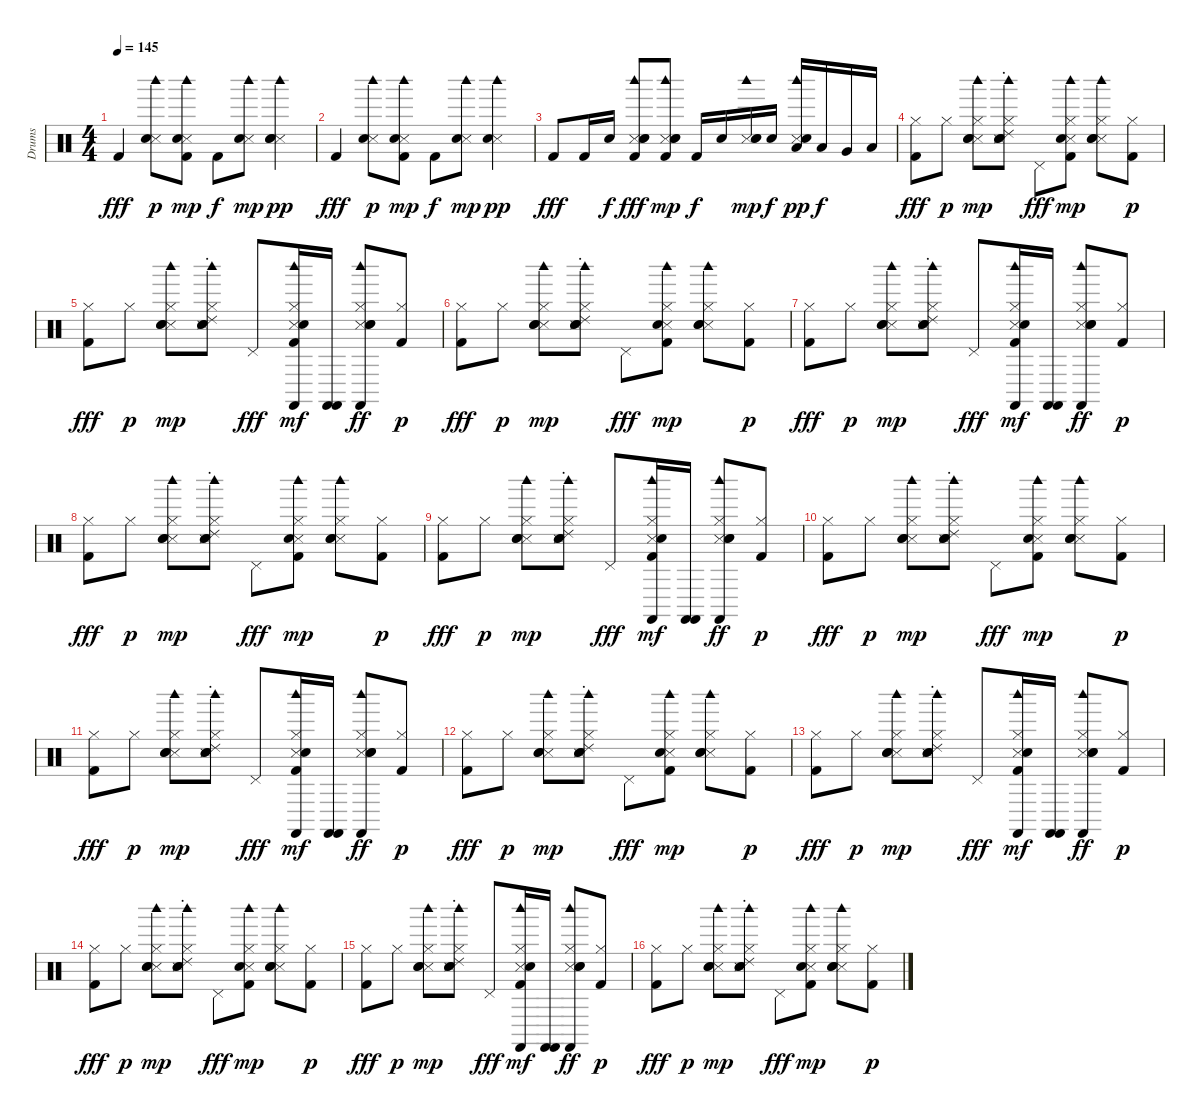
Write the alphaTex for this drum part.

\track ("Drums" "Drums") {instrument percussion}
\staff {score}
\articulation defaults
\ts (4 4)
\tempo 145
\clef neutral
\ks c "Kick (hit) 2".4{dy fff}
("Snare (side stick) 3" "Hand Clap (hit)" "Woodblock high (hit)").8{dy p} ("Kick (hit) 2" "Snare (side stick) 3" "Hand Clap (hit)" "Woodblock high (hit)").8{dy mp} "Kick (hit) 2".8{dy f} ("Snare (side stick) 3" "Hand Clap (hit)" "Woodblock high (hit)").8{dy mp} ("Snare (side stick) 3" "Hand Clap (hit)" "Electric Snare (hit)" "Woodblock high (hit)").4{dy pp} |
"Kick (hit) 2".4{dy fff} ("Snare (side stick) 3" "Hand Clap (hit)" "Woodblock high (hit)").8{dy p} ("Kick (hit) 2" "Snare (side stick) 3" "Hand Clap (hit)" "Woodblock high (hit)").8{dy mp} "Kick (hit) 2".8{dy f} ("Snare (side stick) 3" "Hand Clap (hit)" "Woodblock high (hit)").8{dy mp} ("Snare (side stick) 3" "Hand Clap (hit)" "Woodblock high (hit)").4{dy pp} |
"Kick (hit) 2".8{dy fff} "Kick (hit) 2".16 "Electric Snare (hit)".16{dy f} ("Kick (hit) 2" "Snare (side stick) 3" "Hand Clap (hit)" "Electric Snare (hit)" "Woodblock high (hit)").8{dy fff} ("Kick (hit) 2" "Snare (side stick) 3" "Hand Clap (hit)" "Electric Snare (hit)" "Woodblock high (hit)").8{dy mp} "Kick (hit) 2".16{dy f} "Electric Snare (hit)".16 ("Snare (side stick) 3" "Hand Clap (hit)" "Electric Snare (hit)" "Woodblock high (hit)").16{dy mp} "Electric Snare (hit)".16{dy f} ("Snare (side stick) 3" "Hand Clap (hit)" "Low Tom (hit)" "Woodblock high (hit)").16{dy pp} "Low Tom (hit)".16{dy f} "Very Low Tom (hit)".16 "Low Floor Tom (hit)".16 |
("Kick (hit) 2" "Hi-Hat (closed)").8{dy fff} "Hi-Hat (closed)".8{dy p} ("Snare (side stick) 3" "Hand Clap (hit)" "Electric Snare (hit)" "Hi-Hat (closed)" "Woodblock high (hit)").8{dy mp} ("Ride (choke) 2" "Snare (side stick) 3" "Hand Clap (hit)" "Electric Snare (hit)" "Hi-Hat (closed)" "Woodblock high (hit)").8 "Pedal Hi-Hat (hit)".8{dy fff} ("Kick (hit) 2" "Snare (side stick) 3" "Hand Clap (hit)" "Hi-Hat (closed)" "Woodblock high (hit)").8{dy mp} ("Snare (side stick) 3" "Hand Clap (hit)" "Electric Snare (hit)" "Hi-Hat (closed)" "Woodblock high (hit)").8 ("Kick (hit) 2" "Hi-Hat (closed)").8{dy p} |
("Kick (hit) 2" "Hi-Hat (closed)").8{dy fff} "Hi-Hat (closed)".8{dy p} ("Snare (side stick) 3" "Hand Clap (hit)" "Electric Snare (hit)" "Hi-Hat (closed)" "Woodblock high (hit)").8{dy mp} ("Ride (choke) 2" "Snare (side stick) 3" "Hand Clap (hit)" "Electric Snare (hit)" "Hi-Hat (closed)" "Woodblock high (hit)").8 "Pedal Hi-Hat (hit)".8{dy fff} ("Kick (hit) 2" "Snare (side stick) 3" "Hand Clap (hit)" "Hi-Hat (closed)" "Woodblock high (hit)" "Castanets (hit)").16{dy mf} ("Castanets (hit)" "Castanets (hit)").16 ("Snare (side stick) 3" "Hand Clap (hit)" "Electric Snare (hit)" "Hi-Hat (closed)" "Woodblock high (hit)" "Castanets (hit)").8{dy ff} ("Kick (hit) 2" "Hi-Hat (closed)").8{dy p} |
("Kick (hit) 2" "Hi-Hat (closed)").8{dy fff} "Hi-Hat (closed)".8{dy p} ("Snare (side stick) 3" "Hand Clap (hit)" "Electric Snare (hit)" "Hi-Hat (closed)" "Woodblock high (hit)").8{dy mp} ("Ride (choke) 2" "Snare (side stick) 3" "Hand Clap (hit)" "Electric Snare (hit)" "Hi-Hat (closed)" "Woodblock high (hit)").8 "Pedal Hi-Hat (hit)".8{dy fff} ("Kick (hit) 2" "Snare (side stick) 3" "Hand Clap (hit)" "Hi-Hat (closed)" "Woodblock high (hit)").8{dy mp} ("Snare (side stick) 3" "Hand Clap (hit)" "Electric Snare (hit)" "Hi-Hat (closed)" "Woodblock high (hit)").8 ("Kick (hit) 2" "Hi-Hat (closed)").8{dy p} |
("Kick (hit) 2" "Hi-Hat (closed)").8{dy fff} "Hi-Hat (closed)".8{dy p} ("Snare (side stick) 3" "Hand Clap (hit)" "Electric Snare (hit)" "Hi-Hat (closed)" "Woodblock high (hit)").8{dy mp} ("Ride (choke) 2" "Snare (side stick) 3" "Hand Clap (hit)" "Electric Snare (hit)" "Hi-Hat (closed)" "Woodblock high (hit)").8 "Pedal Hi-Hat (hit)".8{dy fff} ("Kick (hit) 2" "Snare (side stick) 3" "Hand Clap (hit)" "Hi-Hat (closed)" "Woodblock high (hit)" "Castanets (hit)").16{dy mf} ("Castanets (hit)" "Castanets (hit)").16 ("Snare (side stick) 3" "Hand Clap (hit)" "Electric Snare (hit)" "Hi-Hat (closed)" "Woodblock high (hit)" "Castanets (hit)").8{dy ff} ("Kick (hit) 2" "Hi-Hat (closed)").8{dy p} |
("Kick (hit) 2" "Hi-Hat (closed)").8{dy fff} "Hi-Hat (closed)".8{dy p} ("Snare (side stick) 3" "Hand Clap (hit)" "Electric Snare (hit)" "Hi-Hat (closed)" "Woodblock high (hit)").8{dy mp} ("Ride (choke) 2" "Snare (side stick) 3" "Hand Clap (hit)" "Electric Snare (hit)" "Hi-Hat (closed)" "Woodblock high (hit)").8 "Pedal Hi-Hat (hit)".8{dy fff} ("Kick (hit) 2" "Snare (side stick) 3" "Hand Clap (hit)" "Hi-Hat (closed)" "Woodblock high (hit)").8{dy mp} ("Snare (side stick) 3" "Hand Clap (hit)" "Electric Snare (hit)" "Hi-Hat (closed)" "Woodblock high (hit)").8 ("Kick (hit) 2" "Hi-Hat (closed)").8{dy p} |
("Kick (hit) 2" "Hi-Hat (closed)").8{dy fff} "Hi-Hat (closed)".8{dy p} ("Snare (side stick) 3" "Hand Clap (hit)" "Electric Snare (hit)" "Hi-Hat (closed)" "Woodblock high (hit)").8{dy mp} ("Ride (choke) 2" "Snare (side stick) 3" "Hand Clap (hit)" "Electric Snare (hit)" "Hi-Hat (closed)" "Woodblock high (hit)").8 "Pedal Hi-Hat (hit)".8{dy fff} ("Kick (hit) 2" "Snare (side stick) 3" "Hand Clap (hit)" "Hi-Hat (closed)" "Woodblock high (hit)" "Castanets (hit)").16{dy mf} ("Castanets (hit)" "Castanets (hit)").16 ("Snare (side stick) 3" "Hand Clap (hit)" "Electric Snare (hit)" "Hi-Hat (closed)" "Woodblock high (hit)" "Castanets (hit)").8{dy ff} ("Kick (hit) 2" "Hi-Hat (closed)").8{dy p} |
("Kick (hit) 2" "Hi-Hat (closed)").8{dy fff} "Hi-Hat (closed)".8{dy p} ("Snare (side stick) 3" "Hand Clap (hit)" "Electric Snare (hit)" "Hi-Hat (closed)" "Woodblock high (hit)").8{dy mp} ("Ride (choke) 2" "Snare (side stick) 3" "Hand Clap (hit)" "Electric Snare (hit)" "Hi-Hat (closed)" "Woodblock high (hit)").8 "Pedal Hi-Hat (hit)".8{dy fff} ("Kick (hit) 2" "Snare (side stick) 3" "Hand Clap (hit)" "Hi-Hat (closed)" "Woodblock high (hit)").8{dy mp} ("Snare (side stick) 3" "Hand Clap (hit)" "Electric Snare (hit)" "Hi-Hat (closed)" "Woodblock high (hit)").8 ("Kick (hit) 2" "Hi-Hat (closed)").8{dy p} |
("Kick (hit) 2" "Hi-Hat (closed)").8{dy fff} "Hi-Hat (closed)".8{dy p} ("Snare (side stick) 3" "Hand Clap (hit)" "Electric Snare (hit)" "Hi-Hat (closed)" "Woodblock high (hit)").8{dy mp} ("Ride (choke) 2" "Snare (side stick) 3" "Hand Clap (hit)" "Electric Snare (hit)" "Hi-Hat (closed)" "Woodblock high (hit)").8 "Pedal Hi-Hat (hit)".8{dy fff} ("Kick (hit) 2" "Snare (side stick) 3" "Hand Clap (hit)" "Hi-Hat (closed)" "Woodblock high (hit)" "Castanets (hit)").16{dy mf} ("Castanets (hit)" "Castanets (hit)").16 ("Snare (side stick) 3" "Hand Clap (hit)" "Electric Snare (hit)" "Hi-Hat (closed)" "Woodblock high (hit)" "Castanets (hit)").8{dy ff} ("Kick (hit) 2" "Hi-Hat (closed)").8{dy p} |
("Kick (hit) 2" "Hi-Hat (closed)").8{dy fff} "Hi-Hat (closed)".8{dy p} ("Snare (side stick) 3" "Hand Clap (hit)" "Electric Snare (hit)" "Hi-Hat (closed)" "Woodblock high (hit)").8{dy mp} ("Ride (choke) 2" "Snare (side stick) 3" "Hand Clap (hit)" "Electric Snare (hit)" "Hi-Hat (closed)" "Woodblock high (hit)").8 "Pedal Hi-Hat (hit)".8{dy fff} ("Kick (hit) 2" "Snare (side stick) 3" "Hand Clap (hit)" "Hi-Hat (closed)" "Woodblock high (hit)").8{dy mp} ("Snare (side stick) 3" "Hand Clap (hit)" "Electric Snare (hit)" "Hi-Hat (closed)" "Woodblock high (hit)").8 ("Kick (hit) 2" "Hi-Hat (closed)").8{dy p} |
("Kick (hit) 2" "Hi-Hat (closed)").8{dy fff} "Hi-Hat (closed)".8{dy p} ("Snare (side stick) 3" "Hand Clap (hit)" "Electric Snare (hit)" "Hi-Hat (closed)" "Woodblock high (hit)").8{dy mp} ("Ride (choke) 2" "Snare (side stick) 3" "Hand Clap (hit)" "Electric Snare (hit)" "Hi-Hat (closed)" "Woodblock high (hit)").8 "Pedal Hi-Hat (hit)".8{dy fff} ("Kick (hit) 2" "Snare (side stick) 3" "Hand Clap (hit)" "Hi-Hat (closed)" "Woodblock high (hit)" "Castanets (hit)").16{dy mf} ("Castanets (hit)" "Castanets (hit)").16 ("Snare (side stick) 3" "Hand Clap (hit)" "Electric Snare (hit)" "Hi-Hat (closed)" "Woodblock high (hit)" "Castanets (hit)").8{dy ff} ("Kick (hit) 2" "Hi-Hat (closed)").8{dy p} |
("Kick (hit) 2" "Hi-Hat (closed)").8{dy fff} "Hi-Hat (closed)".8{dy p} ("Snare (side stick) 3" "Hand Clap (hit)" "Electric Snare (hit)" "Hi-Hat (closed)" "Woodblock high (hit)").8{dy mp} ("Ride (choke) 2" "Snare (side stick) 3" "Hand Clap (hit)" "Electric Snare (hit)" "Hi-Hat (closed)" "Woodblock high (hit)").8 "Pedal Hi-Hat (hit)".8{dy fff} ("Kick (hit) 2" "Snare (side stick) 3" "Hand Clap (hit)" "Hi-Hat (closed)" "Woodblock high (hit)").8{dy mp} ("Snare (side stick) 3" "Hand Clap (hit)" "Electric Snare (hit)" "Hi-Hat (closed)" "Woodblock high (hit)").8 ("Kick (hit) 2" "Hi-Hat (closed)").8{dy p} |
("Kick (hit) 2" "Hi-Hat (closed)").8{dy fff} "Hi-Hat (closed)".8{dy p} ("Snare (side stick) 3" "Hand Clap (hit)" "Electric Snare (hit)" "Hi-Hat (closed)" "Woodblock high (hit)").8{dy mp} ("Ride (choke) 2" "Snare (side stick) 3" "Hand Clap (hit)" "Electric Snare (hit)" "Hi-Hat (closed)" "Woodblock high (hit)").8 "Pedal Hi-Hat (hit)".8{dy fff} ("Kick (hit) 2" "Snare (side stick) 3" "Hand Clap (hit)" "Hi-Hat (closed)" "Woodblock high (hit)" "Castanets (hit)").16{dy mf} ("Castanets (hit)" "Castanets (hit)").16 ("Snare (side stick) 3" "Hand Clap (hit)" "Electric Snare (hit)" "Hi-Hat (closed)" "Woodblock high (hit)" "Castanets (hit)").8{dy ff} ("Kick (hit) 2" "Hi-Hat (closed)").8{dy p} |
("Kick (hit) 2" "Hi-Hat (closed)").8{dy fff} "Hi-Hat (closed)".8{dy p} ("Snare (side stick) 3" "Hand Clap (hit)" "Electric Snare (hit)" "Hi-Hat (closed)" "Woodblock high (hit)").8{dy mp} ("Ride (choke) 2" "Snare (side stick) 3" "Hand Clap (hit)" "Electric Snare (hit)" "Hi-Hat (closed)" "Woodblock high (hit)").8 "Pedal Hi-Hat (hit)".8{dy fff} ("Kick (hit) 2" "Snare (side stick) 3" "Hand Clap (hit)" "Hi-Hat (closed)" "Woodblock high (hit)").8{dy mp} ("Snare (side stick) 3" "Hand Clap (hit)" "Electric Snare (hit)" "Hi-Hat (closed)" "Woodblock high (hit)").8 ("Kick (hit) 2" "Hi-Hat (closed)").8{dy p}
